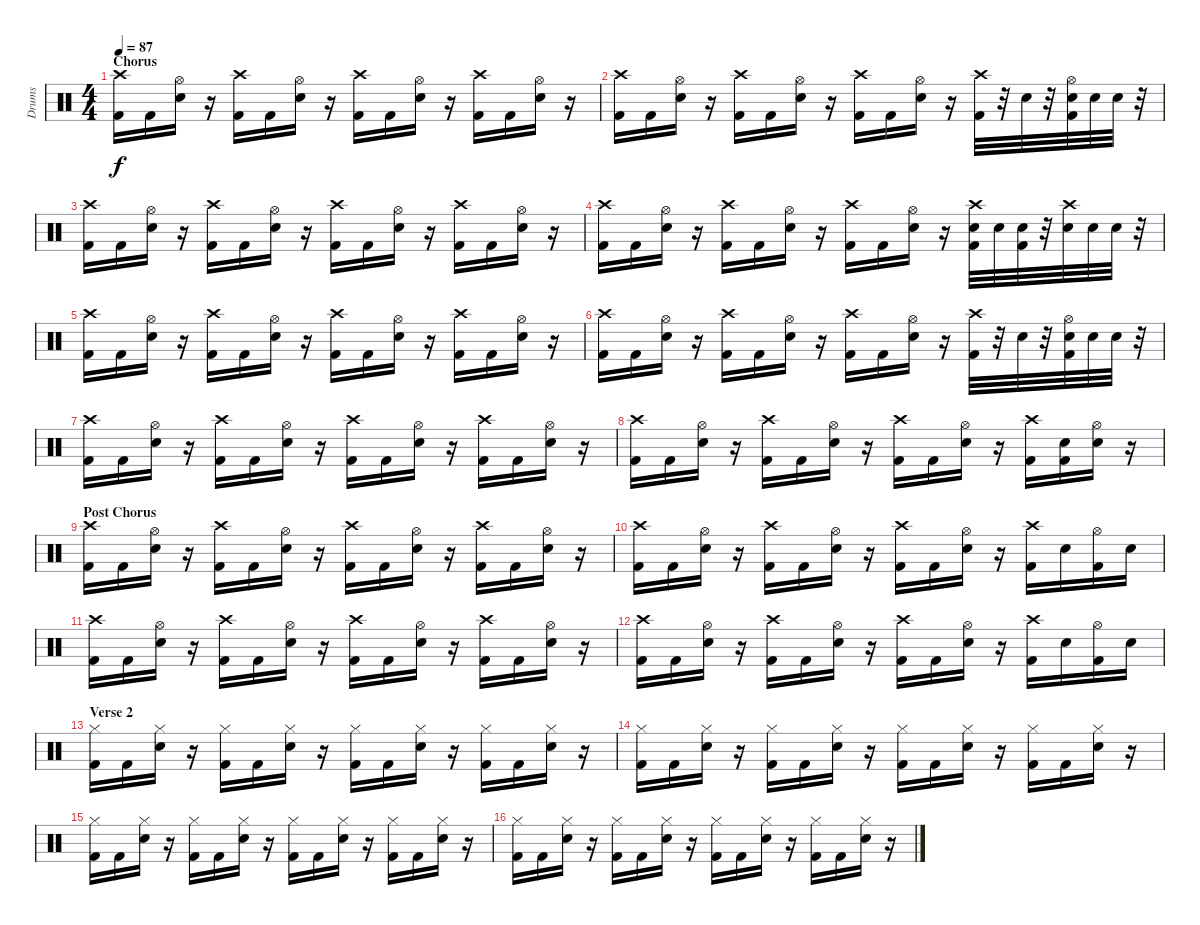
\track ("Drums" "Drums") {instrument percussion}
\staff {score}
\articulation defaults
\ts (4 4)
\section ("" "Chorus")
\tempo 87
\clef neutral
\ks c
("Crash high (hit)" "Kick (hit) 2").16{dy f} "Kick (hit) 2".16 ("Hi-Hat (open)" "Electric Snare (hit)").16 r.16 ("Crash high (hit)" "Kick (hit) 2").16 "Kick (hit) 2".16 ("Hi-Hat (open)" "Electric Snare (hit)").16 r.16 ("Crash high (hit)" "Kick (hit) 2").16 "Kick (hit) 2".16 ("Hi-Hat (open)" "Electric Snare (hit)").16 r.16 ("Crash high (hit)" "Kick (hit) 2").16 "Kick (hit) 2".16 ("Hi-Hat (open)" "Electric Snare (hit)").16 r.16 |
("Crash high (hit)" "Kick (hit) 2").16 "Kick (hit) 2".16 ("Hi-Hat (open)" "Electric Snare (hit)").16 r.16 ("Crash high (hit)" "Kick (hit) 2").16 "Kick (hit) 2".16 ("Hi-Hat (open)" "Electric Snare (hit)").16 r.16 ("Crash high (hit)" "Kick (hit) 2").16 "Kick (hit) 2".16 ("Hi-Hat (open)" "Electric Snare (hit)").16 r.16 ("Crash high (hit)" "Kick (hit) 2").32 r.32 "Electric Snare (hit)".32 r.32 ("Hi-Hat (open)" "Electric Snare (hit)" "Kick (hit) 2").32 "Electric Snare (hit)".32 "Electric Snare (hit)".32 r.32 |
("Crash high (hit)" "Kick (hit) 2").16 "Kick (hit) 2".16 ("Hi-Hat (open)" "Electric Snare (hit)").16 r.16 ("Crash high (hit)" "Kick (hit) 2").16 "Kick (hit) 2".16 ("Hi-Hat (open)" "Electric Snare (hit)").16 r.16 ("Crash high (hit)" "Kick (hit) 2").16 "Kick (hit) 2".16 ("Hi-Hat (open)" "Electric Snare (hit)").16 r.16 ("Crash high (hit)" "Kick (hit) 2").16 "Kick (hit) 2".16 ("Hi-Hat (open)" "Electric Snare (hit)").16 r.16 |
("Crash high (hit)" "Kick (hit) 2").16 "Kick (hit) 2".16 ("Hi-Hat (open)" "Electric Snare (hit)").16 r.16 ("Crash high (hit)" "Kick (hit) 2").16 "Kick (hit) 2".16 ("Hi-Hat (open)" "Electric Snare (hit)").16 r.16 ("Crash high (hit)" "Kick (hit) 2").16 "Kick (hit) 2".16 ("Hi-Hat (open)" "Electric Snare (hit)").16 r.16 ("Crash high (hit)" "Electric Snare (hit)" "Kick (hit) 2").32 "Electric Snare (hit)".32 ("Electric Snare (hit)" "Kick (hit) 2").32 r.32 ("Crash high (hit)" "Electric Snare (hit)").32 "Electric Snare (hit)".32 "Electric Snare (hit)".32 r.32 |
("Crash high (hit)" "Kick (hit) 2").16 "Kick (hit) 2".16 ("Hi-Hat (open)" "Electric Snare (hit)").16 r.16 ("Crash high (hit)" "Kick (hit) 2").16 "Kick (hit) 2".16 ("Hi-Hat (open)" "Electric Snare (hit)").16 r.16 ("Crash high (hit)" "Kick (hit) 2").16 "Kick (hit) 2".16 ("Hi-Hat (open)" "Electric Snare (hit)").16 r.16 ("Crash high (hit)" "Kick (hit) 2").16 "Kick (hit) 2".16 ("Hi-Hat (open)" "Electric Snare (hit)").16 r.16 |
("Crash high (hit)" "Kick (hit) 2").16 "Kick (hit) 2".16 ("Hi-Hat (open)" "Electric Snare (hit)").16 r.16 ("Crash high (hit)" "Kick (hit) 2").16 "Kick (hit) 2".16 ("Hi-Hat (open)" "Electric Snare (hit)").16 r.16 ("Crash high (hit)" "Kick (hit) 2").16 "Kick (hit) 2".16 ("Hi-Hat (open)" "Electric Snare (hit)").16 r.16 ("Crash high (hit)" "Kick (hit) 2").32 r.32 "Electric Snare (hit)".32 r.32 ("Hi-Hat (open)" "Electric Snare (hit)" "Kick (hit) 2").32 "Electric Snare (hit)".32 "Electric Snare (hit)".32 r.32 |
("Crash high (hit)" "Kick (hit) 2").16 "Kick (hit) 2".16 ("Hi-Hat (open)" "Electric Snare (hit)").16 r.16 ("Crash high (hit)" "Kick (hit) 2").16 "Kick (hit) 2".16 ("Hi-Hat (open)" "Electric Snare (hit)").16 r.16 ("Crash high (hit)" "Kick (hit) 2").16 "Kick (hit) 2".16 ("Hi-Hat (open)" "Electric Snare (hit)").16 r.16 ("Crash high (hit)" "Kick (hit) 2").16 "Kick (hit) 2".16 ("Hi-Hat (open)" "Electric Snare (hit)").16 r.16 |
("Crash high (hit)" "Kick (hit) 2").16 "Kick (hit) 2".16 ("Hi-Hat (open)" "Electric Snare (hit)").16 r.16 ("Crash high (hit)" "Kick (hit) 2").16 "Kick (hit) 2".16 ("Hi-Hat (open)" "Electric Snare (hit)").16 r.16 ("Crash high (hit)" "Kick (hit) 2").16 "Kick (hit) 2".16 ("Hi-Hat (open)" "Electric Snare (hit)").16 r.16 ("Crash high (hit)" "Kick (hit) 2").16 ("Electric Snare (hit)" "Kick (hit) 2").16 ("Hi-Hat (open)" "Electric Snare (hit)").16 r.16 |
\section ("" "Post Chorus")
("Crash high (hit)" "Kick (hit) 2").16 "Kick (hit) 2".16 ("Hi-Hat (open)" "Electric Snare (hit)").16 r.16 ("Crash high (hit)" "Kick (hit) 2").16 "Kick (hit) 2".16 ("Hi-Hat (open)" "Electric Snare (hit)").16 r.16 ("Crash high (hit)" "Kick (hit) 2").16 "Kick (hit) 2".16 ("Hi-Hat (open)" "Electric Snare (hit)").16 r.16 ("Crash high (hit)" "Kick (hit) 2").16 "Kick (hit) 2".16 ("Hi-Hat (open)" "Electric Snare (hit)").16 r.16 |
("Crash high (hit)" "Kick (hit) 2").16 "Kick (hit) 2".16 ("Hi-Hat (open)" "Electric Snare (hit)").16 r.16 ("Crash high (hit)" "Kick (hit) 2").16 "Kick (hit) 2".16 ("Hi-Hat (open)" "Electric Snare (hit)").16 r.16 ("Crash high (hit)" "Kick (hit) 2").16 "Kick (hit) 2".16 ("Hi-Hat (open)" "Electric Snare (hit)").16 r.16 ("Crash high (hit)" "Kick (hit) 2").16 "Electric Snare (hit)".16 ("Hi-Hat (open)" "Kick (hit) 2").16 "Electric Snare (hit)".16 |
("Crash high (hit)" "Kick (hit) 2").16 "Kick (hit) 2".16 ("Hi-Hat (open)" "Electric Snare (hit)").16 r.16 ("Crash high (hit)" "Kick (hit) 2").16 "Kick (hit) 2".16 ("Hi-Hat (open)" "Electric Snare (hit)").16 r.16 ("Crash high (hit)" "Kick (hit) 2").16 "Kick (hit) 2".16 ("Hi-Hat (open)" "Electric Snare (hit)").16 r.16 ("Crash high (hit)" "Kick (hit) 2").16 "Kick (hit) 2".16 ("Hi-Hat (open)" "Electric Snare (hit)").16 r.16 |
("Crash high (hit)" "Kick (hit) 2").16 "Kick (hit) 2".16 ("Hi-Hat (open)" "Electric Snare (hit)").16 r.16 ("Crash high (hit)" "Kick (hit) 2").16 "Kick (hit) 2".16 ("Hi-Hat (open)" "Electric Snare (hit)").16 r.16 ("Crash high (hit)" "Kick (hit) 2").16 "Kick (hit) 2".16 ("Hi-Hat (open)" "Electric Snare (hit)").16 r.16 ("Crash high (hit)" "Kick (hit) 2").16 "Electric Snare (hit)".16 ("Hi-Hat (open)" "Kick (hit) 2").16 "Electric Snare (hit)".16 |
\section ("" "Verse 2")
("Hi-Hat (closed)" "Kick (hit) 2").16 "Kick (hit) 2".16 ("Hi-Hat (closed)" "Electric Snare (hit)").16 r.16 ("Hi-Hat (closed)" "Kick (hit) 2").16 "Kick (hit) 2".16 ("Hi-Hat (closed)" "Electric Snare (hit)").16 r.16 ("Hi-Hat (closed)" "Kick (hit) 2").16 "Kick (hit) 2".16 ("Hi-Hat (closed)" "Electric Snare (hit)").16 r.16 ("Hi-Hat (closed)" "Kick (hit) 2").16 "Kick (hit) 2".16 ("Hi-Hat (closed)" "Electric Snare (hit)").16 r.16 |
("Hi-Hat (closed)" "Kick (hit) 2").16 "Kick (hit) 2".16 ("Hi-Hat (closed)" "Electric Snare (hit)").16 r.16 ("Hi-Hat (closed)" "Kick (hit) 2").16 "Kick (hit) 2".16 ("Hi-Hat (closed)" "Electric Snare (hit)").16 r.16 ("Hi-Hat (closed)" "Kick (hit) 2").16 "Kick (hit) 2".16 ("Hi-Hat (closed)" "Electric Snare (hit)").16 r.16 ("Hi-Hat (closed)" "Kick (hit) 2").16 "Kick (hit) 2".16 ("Hi-Hat (closed)" "Electric Snare (hit)").16 r.16 |
("Hi-Hat (closed)" "Kick (hit) 2").16 "Kick (hit) 2".16 ("Hi-Hat (closed)" "Electric Snare (hit)").16 r.16 ("Hi-Hat (closed)" "Kick (hit) 2").16 "Kick (hit) 2".16 ("Hi-Hat (closed)" "Electric Snare (hit)").16 r.16 ("Hi-Hat (closed)" "Kick (hit) 2").16 "Kick (hit) 2".16 ("Hi-Hat (closed)" "Electric Snare (hit)").16 r.16 ("Hi-Hat (closed)" "Kick (hit) 2").16 "Kick (hit) 2".16 ("Hi-Hat (closed)" "Electric Snare (hit)").16 r.16 |
("Hi-Hat (closed)" "Kick (hit) 2").16 "Kick (hit) 2".16 ("Hi-Hat (closed)" "Electric Snare (hit)").16 r.16 ("Hi-Hat (closed)" "Kick (hit) 2").16 "Kick (hit) 2".16 ("Hi-Hat (closed)" "Electric Snare (hit)").16 r.16 ("Hi-Hat (closed)" "Kick (hit) 2").16 "Kick (hit) 2".16 ("Hi-Hat (closed)" "Electric Snare (hit)").16 r.16 ("Hi-Hat (closed)" "Kick (hit) 2").16 "Kick (hit) 2".16 ("Hi-Hat (closed)" "Electric Snare (hit)").16 r.16
